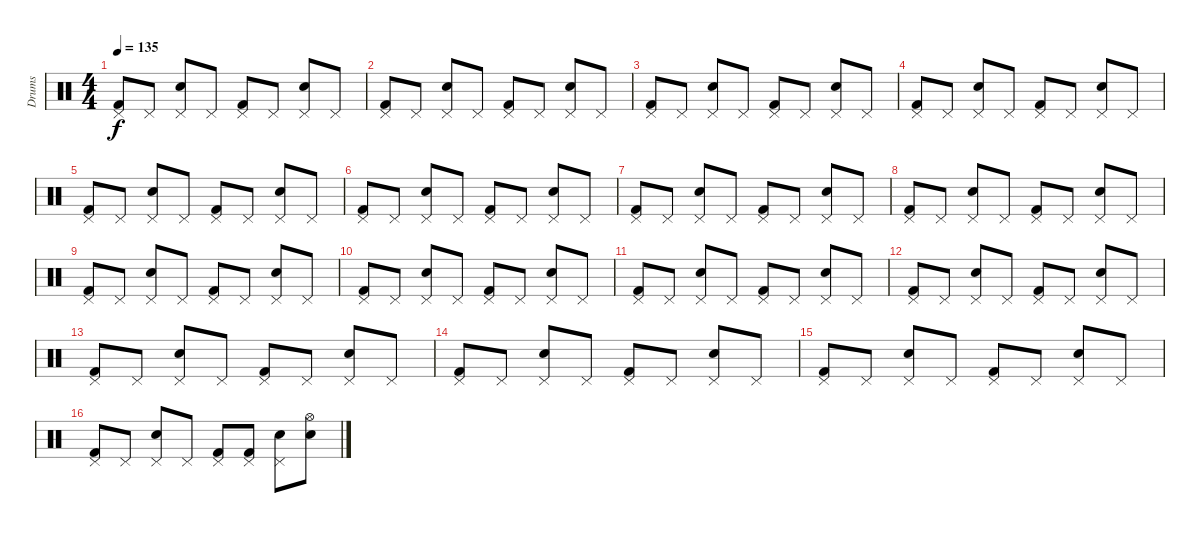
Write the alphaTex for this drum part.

\track ("Drums" "Drums") {instrument percussion}
\staff {score}
\articulation defaults
\ts (4 4)
\tempo 135
\clef neutral
\ks c
("Pedal Hi-Hat (hit)" "Kick (hit) 2").8{dy f} "Pedal Hi-Hat (hit)".8 ("Pedal Hi-Hat (hit)" "Snare (hit) 2").8 "Pedal Hi-Hat (hit)".8 ("Pedal Hi-Hat (hit)" "Kick (hit) 2").8 "Pedal Hi-Hat (hit)".8 ("Pedal Hi-Hat (hit)" "Snare (hit) 2").8 "Pedal Hi-Hat (hit)".8 |
("Pedal Hi-Hat (hit)" "Kick (hit) 2").8 "Pedal Hi-Hat (hit)".8 ("Pedal Hi-Hat (hit)" "Snare (hit) 2").8 "Pedal Hi-Hat (hit)".8 ("Pedal Hi-Hat (hit)" "Kick (hit) 2").8 "Pedal Hi-Hat (hit)".8 ("Pedal Hi-Hat (hit)" "Snare (hit) 2").8 "Pedal Hi-Hat (hit)".8 |
("Pedal Hi-Hat (hit)" "Kick (hit) 2").8 "Pedal Hi-Hat (hit)".8 ("Pedal Hi-Hat (hit)" "Snare (hit) 2").8 "Pedal Hi-Hat (hit)".8 ("Pedal Hi-Hat (hit)" "Kick (hit) 2").8 "Pedal Hi-Hat (hit)".8 ("Pedal Hi-Hat (hit)" "Snare (hit) 2").8 "Pedal Hi-Hat (hit)".8 |
("Pedal Hi-Hat (hit)" "Kick (hit) 2").8 "Pedal Hi-Hat (hit)".8 ("Pedal Hi-Hat (hit)" "Snare (hit) 2").8 "Pedal Hi-Hat (hit)".8 ("Pedal Hi-Hat (hit)" "Kick (hit) 2").8 "Pedal Hi-Hat (hit)".8 ("Pedal Hi-Hat (hit)" "Snare (hit) 2").8 "Pedal Hi-Hat (hit)".8 |
("Pedal Hi-Hat (hit)" "Kick (hit) 2").8 "Pedal Hi-Hat (hit)".8 ("Pedal Hi-Hat (hit)" "Snare (hit) 2").8 "Pedal Hi-Hat (hit)".8 ("Pedal Hi-Hat (hit)" "Kick (hit) 2").8 "Pedal Hi-Hat (hit)".8 ("Pedal Hi-Hat (hit)" "Snare (hit) 2").8 "Pedal Hi-Hat (hit)".8 |
("Pedal Hi-Hat (hit)" "Kick (hit) 2").8 "Pedal Hi-Hat (hit)".8 ("Pedal Hi-Hat (hit)" "Snare (hit) 2").8 "Pedal Hi-Hat (hit)".8 ("Pedal Hi-Hat (hit)" "Kick (hit) 2").8 "Pedal Hi-Hat (hit)".8 ("Pedal Hi-Hat (hit)" "Snare (hit) 2").8 "Pedal Hi-Hat (hit)".8 |
("Pedal Hi-Hat (hit)" "Kick (hit) 2").8 "Pedal Hi-Hat (hit)".8 ("Pedal Hi-Hat (hit)" "Snare (hit) 2").8 "Pedal Hi-Hat (hit)".8 ("Pedal Hi-Hat (hit)" "Kick (hit) 2").8 "Pedal Hi-Hat (hit)".8 ("Pedal Hi-Hat (hit)" "Snare (hit) 2").8 "Pedal Hi-Hat (hit)".8 |
("Pedal Hi-Hat (hit)" "Kick (hit) 2").8 "Pedal Hi-Hat (hit)".8 ("Pedal Hi-Hat (hit)" "Snare (hit) 2").8 "Pedal Hi-Hat (hit)".8 ("Pedal Hi-Hat (hit)" "Kick (hit) 2").8 "Pedal Hi-Hat (hit)".8 ("Pedal Hi-Hat (hit)" "Snare (hit) 2").8 "Pedal Hi-Hat (hit)".8 |
("Pedal Hi-Hat (hit)" "Kick (hit) 2").8 "Pedal Hi-Hat (hit)".8 ("Pedal Hi-Hat (hit)" "Snare (hit) 2").8 "Pedal Hi-Hat (hit)".8 ("Pedal Hi-Hat (hit)" "Kick (hit) 2").8 "Pedal Hi-Hat (hit)".8 ("Pedal Hi-Hat (hit)" "Snare (hit) 2").8 "Pedal Hi-Hat (hit)".8 |
("Pedal Hi-Hat (hit)" "Kick (hit) 2").8 "Pedal Hi-Hat (hit)".8 ("Pedal Hi-Hat (hit)" "Snare (hit) 2").8 "Pedal Hi-Hat (hit)".8 ("Pedal Hi-Hat (hit)" "Kick (hit) 2").8 "Pedal Hi-Hat (hit)".8 ("Pedal Hi-Hat (hit)" "Snare (hit) 2").8 "Pedal Hi-Hat (hit)".8 |
("Pedal Hi-Hat (hit)" "Kick (hit) 2").8 "Pedal Hi-Hat (hit)".8 ("Pedal Hi-Hat (hit)" "Snare (hit) 2").8 "Pedal Hi-Hat (hit)".8 ("Pedal Hi-Hat (hit)" "Kick (hit) 2").8 "Pedal Hi-Hat (hit)".8 ("Pedal Hi-Hat (hit)" "Snare (hit) 2").8 "Pedal Hi-Hat (hit)".8 |
("Pedal Hi-Hat (hit)" "Kick (hit) 2").8 "Pedal Hi-Hat (hit)".8 ("Pedal Hi-Hat (hit)" "Snare (hit) 2").8 "Pedal Hi-Hat (hit)".8 ("Pedal Hi-Hat (hit)" "Kick (hit) 2").8 "Pedal Hi-Hat (hit)".8 ("Pedal Hi-Hat (hit)" "Snare (hit) 2").8 "Pedal Hi-Hat (hit)".8 |
("Pedal Hi-Hat (hit)" "Kick (hit) 2").8 "Pedal Hi-Hat (hit)".8 ("Pedal Hi-Hat (hit)" "Snare (hit) 2").8 "Pedal Hi-Hat (hit)".8 ("Pedal Hi-Hat (hit)" "Kick (hit) 2").8 "Pedal Hi-Hat (hit)".8 ("Pedal Hi-Hat (hit)" "Snare (hit) 2").8 "Pedal Hi-Hat (hit)".8 |
("Pedal Hi-Hat (hit)" "Kick (hit) 2").8 "Pedal Hi-Hat (hit)".8 ("Pedal Hi-Hat (hit)" "Snare (hit) 2").8 "Pedal Hi-Hat (hit)".8 ("Pedal Hi-Hat (hit)" "Kick (hit) 2").8 "Pedal Hi-Hat (hit)".8 ("Pedal Hi-Hat (hit)" "Snare (hit) 2").8 "Pedal Hi-Hat (hit)".8 |
("Pedal Hi-Hat (hit)" "Kick (hit) 2").8 "Pedal Hi-Hat (hit)".8 ("Pedal Hi-Hat (hit)" "Snare (hit) 2").8 "Pedal Hi-Hat (hit)".8 ("Pedal Hi-Hat (hit)" "Kick (hit) 2").8 "Pedal Hi-Hat (hit)".8 ("Pedal Hi-Hat (hit)" "Snare (hit) 2").8 "Pedal Hi-Hat (hit)".8 |
("Pedal Hi-Hat (hit)" "Kick (hit) 2").8 "Pedal Hi-Hat (hit)".8 ("Pedal Hi-Hat (hit)" "Snare (hit) 2").8 "Pedal Hi-Hat (hit)".8 ("Pedal Hi-Hat (hit)" "Kick (hit) 2").8 ("Pedal Hi-Hat (hit)" "Kick (hit) 2").8 ("Pedal Hi-Hat (hit)" "Snare (hit) 2").8 ("Hi-Hat (open)" "Snare (hit) 2").8
